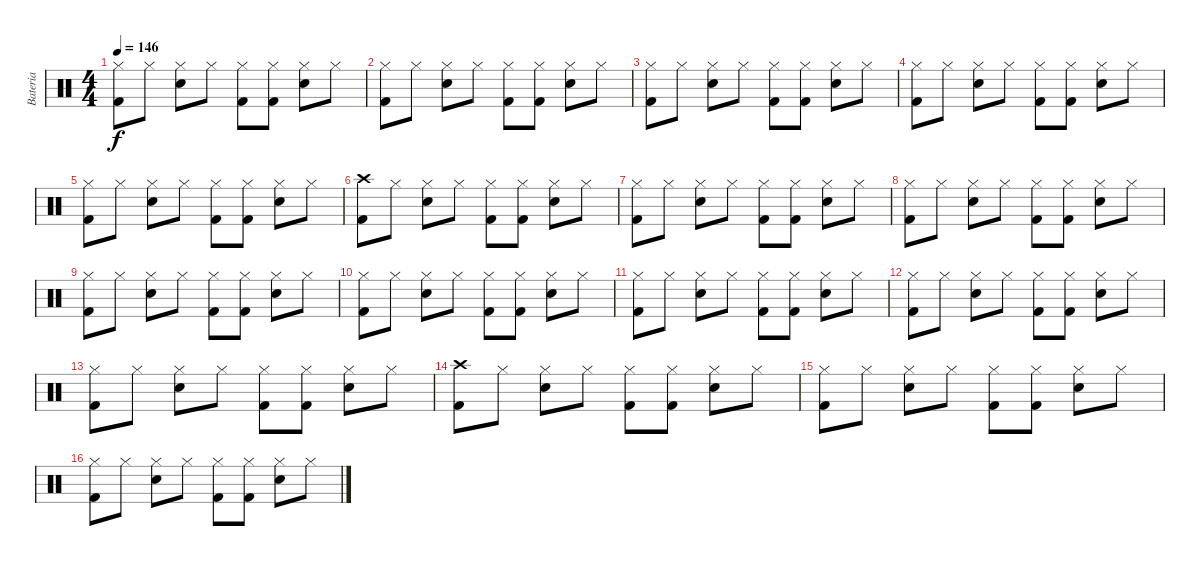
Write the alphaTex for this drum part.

\track ("Bateria" "Bateria") {instrument percussion}
\staff {score}
\articulation defaults
\ts (4 4)
\tempo 146
\clef neutral
\ks c
("Kick (hit) 2" "Hi-Hat (closed)").8{dy f} "Hi-Hat (closed)".8 ("Electric Snare (hit)" "Hi-Hat (closed)").8 "Hi-Hat (closed)".8 ("Kick (hit) 2" "Hi-Hat (closed)").8 ("Hi-Hat (closed)" "Kick (hit) 2").8 ("Hi-Hat (closed)" "Electric Snare (hit)").8 "Hi-Hat (closed)".8 |
("Kick (hit) 2" "Hi-Hat (closed)").8 "Hi-Hat (closed)".8 ("Electric Snare (hit)" "Hi-Hat (closed)").8 "Hi-Hat (closed)".8 ("Kick (hit) 2" "Hi-Hat (closed)").8 ("Hi-Hat (closed)" "Kick (hit) 2").8 ("Hi-Hat (closed)" "Electric Snare (hit)").8 "Hi-Hat (closed)".8 |
("Kick (hit) 2" "Hi-Hat (closed)").8 "Hi-Hat (closed)".8 ("Electric Snare (hit)" "Hi-Hat (closed)").8 "Hi-Hat (closed)".8 ("Kick (hit) 2" "Hi-Hat (closed)").8 ("Hi-Hat (closed)" "Kick (hit) 2").8 ("Hi-Hat (closed)" "Electric Snare (hit)").8 "Hi-Hat (closed)".8 |
("Kick (hit) 2" "Hi-Hat (closed)").8 "Hi-Hat (closed)".8 ("Electric Snare (hit)" "Hi-Hat (closed)").8 "Hi-Hat (closed)".8 ("Kick (hit) 2" "Hi-Hat (closed)").8 ("Hi-Hat (closed)" "Kick (hit) 2").8 ("Hi-Hat (closed)" "Electric Snare (hit)").8 "Hi-Hat (closed)".8 |
("Kick (hit) 2" "Hi-Hat (closed)").8 "Hi-Hat (closed)".8 ("Electric Snare (hit)" "Hi-Hat (closed)").8 "Hi-Hat (closed)".8 ("Kick (hit) 2" "Hi-Hat (closed)").8 ("Kick (hit) 2" "Hi-Hat (closed)").8 ("Hi-Hat (closed)" "Electric Snare (hit)").8 "Hi-Hat (closed)".8 |
("Crash high (hit)" "Kick (hit) 2").8 "Hi-Hat (closed)".8 ("Electric Snare (hit)" "Hi-Hat (closed)").8 "Hi-Hat (closed)".8 ("Kick (hit) 2" "Hi-Hat (closed)").8 ("Hi-Hat (closed)" "Kick (hit) 2").8 ("Hi-Hat (closed)" "Electric Snare (hit)").8 "Hi-Hat (closed)".8 |
("Kick (hit) 2" "Hi-Hat (closed)").8 "Hi-Hat (closed)".8 ("Electric Snare (hit)" "Hi-Hat (closed)").8 "Hi-Hat (closed)".8 ("Kick (hit) 2" "Hi-Hat (closed)").8 ("Hi-Hat (closed)" "Kick (hit) 2").8 ("Hi-Hat (closed)" "Electric Snare (hit)").8 "Hi-Hat (closed)".8 |
("Kick (hit) 2" "Hi-Hat (closed)").8 "Hi-Hat (closed)".8 ("Electric Snare (hit)" "Hi-Hat (closed)").8 "Hi-Hat (closed)".8 ("Kick (hit) 2" "Hi-Hat (closed)").8 ("Kick (hit) 2" "Hi-Hat (closed)").8 ("Hi-Hat (closed)" "Electric Snare (hit)").8 "Hi-Hat (closed)".8 |
("Kick (hit) 2" "Hi-Hat (closed)").8 "Hi-Hat (closed)".8 ("Electric Snare (hit)" "Hi-Hat (closed)").8 "Hi-Hat (closed)".8 ("Kick (hit) 2" "Hi-Hat (closed)").8 ("Hi-Hat (closed)" "Kick (hit) 2").8 ("Hi-Hat (closed)" "Electric Snare (hit)").8 "Hi-Hat (closed)".8 |
("Kick (hit) 2" "Hi-Hat (closed)").8 "Hi-Hat (closed)".8 ("Electric Snare (hit)" "Hi-Hat (closed)").8 "Hi-Hat (closed)".8 ("Kick (hit) 2" "Hi-Hat (closed)").8 ("Hi-Hat (closed)" "Kick (hit) 2").8 ("Hi-Hat (closed)" "Electric Snare (hit)").8 "Hi-Hat (closed)".8 |
("Kick (hit) 2" "Hi-Hat (closed)").8 "Hi-Hat (closed)".8 ("Electric Snare (hit)" "Hi-Hat (closed)").8 "Hi-Hat (closed)".8 ("Kick (hit) 2" "Hi-Hat (closed)").8 ("Hi-Hat (closed)" "Kick (hit) 2").8 ("Hi-Hat (closed)" "Electric Snare (hit)").8 "Hi-Hat (closed)".8 |
("Kick (hit) 2" "Hi-Hat (closed)").8 "Hi-Hat (closed)".8 ("Electric Snare (hit)" "Hi-Hat (closed)").8 "Hi-Hat (closed)".8 ("Kick (hit) 2" "Hi-Hat (closed)").8 ("Hi-Hat (closed)" "Kick (hit) 2").8 ("Hi-Hat (closed)" "Electric Snare (hit)").8 "Hi-Hat (closed)".8 |
("Kick (hit) 2" "Hi-Hat (closed)").8 "Hi-Hat (closed)".8 ("Electric Snare (hit)" "Hi-Hat (closed)").8 "Hi-Hat (closed)".8 ("Kick (hit) 2" "Hi-Hat (closed)").8 ("Kick (hit) 2" "Hi-Hat (closed)").8 ("Hi-Hat (closed)" "Electric Snare (hit)").8 "Hi-Hat (closed)".8 |
("Crash high (hit)" "Kick (hit) 2").8 "Hi-Hat (closed)".8 ("Electric Snare (hit)" "Hi-Hat (closed)").8 "Hi-Hat (closed)".8 ("Kick (hit) 2" "Hi-Hat (closed)").8 ("Hi-Hat (closed)" "Kick (hit) 2").8 ("Hi-Hat (closed)" "Electric Snare (hit)").8 "Hi-Hat (closed)".8 |
("Kick (hit) 2" "Hi-Hat (closed)").8 "Hi-Hat (closed)".8 ("Electric Snare (hit)" "Hi-Hat (closed)").8 "Hi-Hat (closed)".8 ("Kick (hit) 2" "Hi-Hat (closed)").8 ("Hi-Hat (closed)" "Kick (hit) 2").8 ("Hi-Hat (closed)" "Electric Snare (hit)").8 "Hi-Hat (closed)".8 |
("Kick (hit) 2" "Hi-Hat (closed)").8 "Hi-Hat (closed)".8 ("Electric Snare (hit)" "Hi-Hat (closed)").8 "Hi-Hat (closed)".8 ("Kick (hit) 2" "Hi-Hat (closed)").8 ("Kick (hit) 2" "Hi-Hat (closed)").8 ("Hi-Hat (closed)" "Electric Snare (hit)").8 "Hi-Hat (closed)".8
